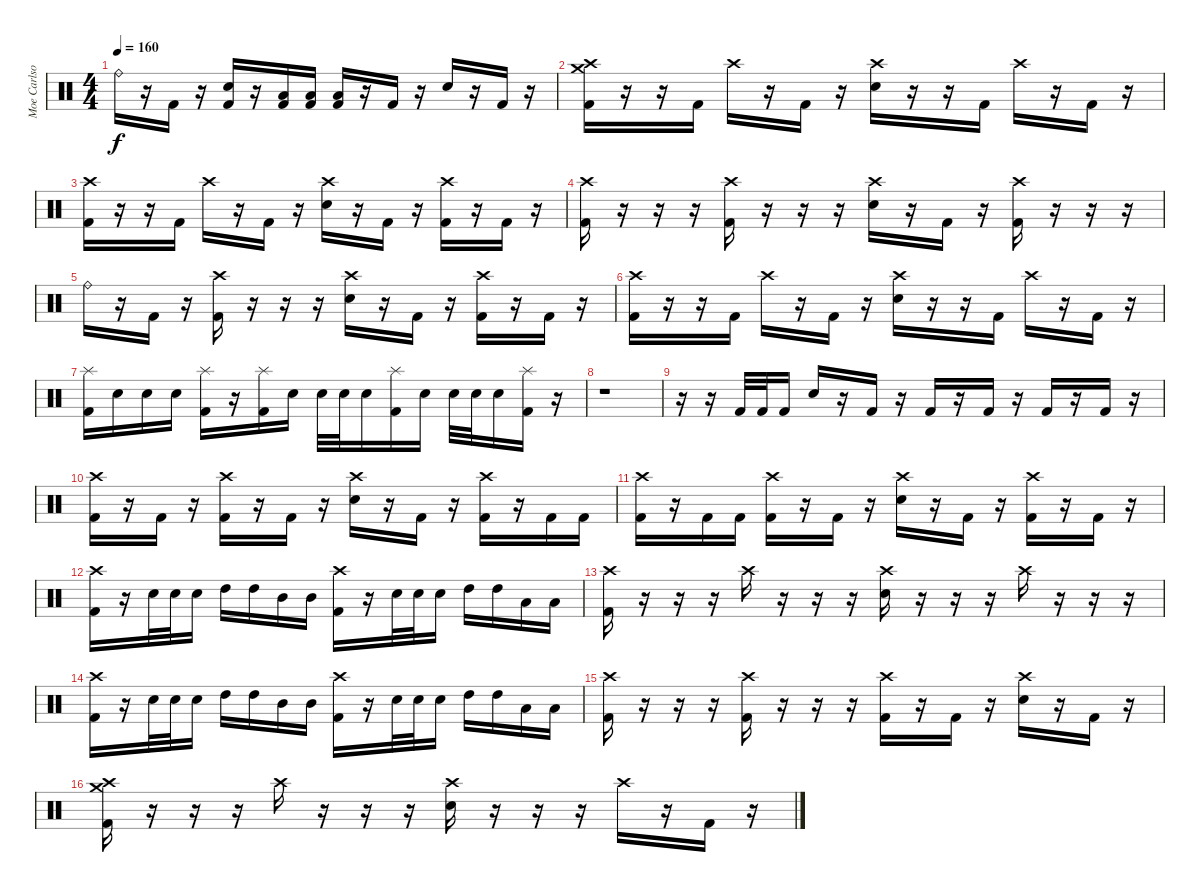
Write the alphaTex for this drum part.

\track ("Moe Carlson" "Moe Carlso") {instrument percussion}
\staff {score}
\articulation defaults
\ts (4 4)
\tempo 160
\clef neutral
\ks c "Ride (bell)".16{dy f}
r.16 "Kick (hit) 2".16 r.16 ("Electric Snare (hit)" "Kick (hit) 2").16 r.16 ("Low Tom (hit)" "Kick (hit) 2").16 ("Low Tom (hit)" "Kick (hit) 2").16 ("Low Tom (hit)" "Kick (hit) 2").16 r.16 "Kick (hit) 2".16 r.16 "Electric Snare (hit)".16 r.16 "Kick (hit) 2".16 r.16 |
("Crash high (hit)" "Crash medium (hit)" "Kick (hit) 2").16 r.16 r.16 "Kick (hit) 2".16 "Crash high (hit)".16 r.16 "Kick (hit) 2".16 r.16 ("Crash high (hit)" "Electric Snare (hit)").16 r.16 r.16 "Kick (hit) 2".16 "Crash high (hit)".16 r.16 "Kick (hit) 2".16 r.16 |
("Crash high (hit)" "Kick (hit) 2").16 r.16 r.16 "Kick (hit) 2".16 "Crash high (hit)".16 r.16 "Kick (hit) 2".16 r.16 ("Crash high (hit)" "Electric Snare (hit)").16 r.16 "Kick (hit) 2".16 r.16 ("Crash high (hit)" "Kick (hit) 2").16 r.16 "Kick (hit) 2".16 r.16 |
("Crash high (hit)" "Kick (hit) 2").16 r.16 r.16 r.16 ("Crash high (hit)" "Kick (hit) 2").16 r.16 r.16 r.16 ("Crash high (hit)" "Electric Snare (hit)").16 r.16 "Kick (hit) 2".16 r.16 ("Crash high (hit)" "Kick (hit) 2").16 r.16 r.16 r.16 |
"Ride (bell)".16 r.16 "Kick (hit) 2".16 r.16 ("Crash high (hit)" "Kick (hit) 2").16 r.16 r.16 r.16 ("Crash high (hit)" "Electric Snare (hit)").16 r.16 "Kick (hit) 2".16 r.16 ("Crash high (hit)" "Kick (hit) 2").16 r.16 "Kick (hit) 2".16 r.16 |
("Crash high (hit)" "Kick (hit) 2").16 r.16 r.16 "Kick (hit) 2".16 "Crash high (hit)".16 r.16 "Kick (hit) 2".16 r.16 ("Crash high (hit)" "Electric Snare (hit)").16 r.16 r.16 "Kick (hit) 2".16 "Crash high (hit)".16 r.16 "Kick (hit) 2".16 r.16 |
("Splash (hit)" "Kick (hit) 2").16 "Electric Snare (hit)".16 "Electric Snare (hit)".16 "Electric Snare (hit)".16 ("Splash (hit)" "Kick (hit) 2").16 r.16 ("Splash (hit)" "Kick (hit) 2").16 "Electric Snare (hit)".16 "Electric Snare (hit)".32 "Electric Snare (hit)".32 "Electric Snare (hit)".16 ("Splash (hit)" "Kick (hit) 2").16 "Electric Snare (hit)".16 "Electric Snare (hit)".32 "Electric Snare (hit)".32 "Electric Snare (hit)".16 ("Splash (hit)" "Kick (hit) 2").16 r.16 |
r.1 |
r.16 r.16 "Kick (hit) 2".32 "Kick (hit) 2".32 "Kick (hit) 2".16 "Electric Snare (hit)".16 r.16 "Kick (hit) 2".16 r.16 "Kick (hit) 2".16 r.16 "Kick (hit) 2".16 r.16 "Kick (hit) 2".16 r.16 "Kick (hit) 2".16 r.16 |
("Crash high (hit)" "Kick (hit) 2").16 r.16 "Kick (hit) 2".16 r.16 ("Crash high (hit)" "Kick (hit) 2").16 r.16 "Kick (hit) 2".16 r.16 ("Crash high (hit)" "Electric Snare (hit)").16 r.16 "Kick (hit) 2".16 r.16 ("Crash high (hit)" "Kick (hit) 2").16 r.16 "Kick (hit) 2".16 "Kick (hit) 2".16 |
("Crash high (hit)" "Kick (hit) 2").16 r.16 "Kick (hit) 2".16 "Kick (hit) 2".16 ("Crash high (hit)" "Kick (hit) 2").16 r.16 "Kick (hit) 2".16 r.16 ("Crash high (hit)" "Electric Snare (hit)").16 r.16 "Kick (hit) 2".16 r.16 ("Crash high (hit)" "Kick (hit) 2").16 r.16 "Kick (hit) 2".16 r.16 |
("Crash high (hit)" "Kick (hit) 2").16 r.16 "Electric Snare (hit)".32 "Electric Snare (hit)".32 "Electric Snare (hit)".16 "High Tom (hit)".16 "High Tom (hit)".16 "Mid Tom (hit)".16 "Mid Tom (hit)".16 ("Crash high (hit)" "Kick (hit) 2").16 r.16 "Electric Snare (hit)".32 "Electric Snare (hit)".32 "Electric Snare (hit)".16 "High Tom (hit)".16 "High Tom (hit)".16 "Low Tom (hit)".16 "Low Tom (hit)".16 |
("Crash high (hit)" "Kick (hit) 2").16 r.16 r.16 r.16 "Crash high (hit)".16 r.16 r.16 r.16 ("Crash high (hit)" "Electric Snare (hit)").16 r.16 r.16 r.16 "Crash high (hit)".16 r.16 r.16 r.16 |
("Crash high (hit)" "Kick (hit) 2").16 r.16 "Electric Snare (hit)".32 "Electric Snare (hit)".32 "Electric Snare (hit)".16 "High Tom (hit)".16 "High Tom (hit)".16 "Mid Tom (hit)".16 "Mid Tom (hit)".16 ("Crash high (hit)" "Kick (hit) 2").16 r.16 "Electric Snare (hit)".32 "Electric Snare (hit)".32 "Electric Snare (hit)".16 "High Tom (hit)".16 "High Tom (hit)".16 "Low Tom (hit)".16 "Low Tom (hit)".16 |
("Crash high (hit)" "Kick (hit) 2").16 r.16 r.16 r.16 ("Crash high (hit)" "Kick (hit) 2").16 r.16 r.16 r.16 ("Crash high (hit)" "Kick (hit) 2").16 r.16 "Kick (hit) 2".16 r.16 ("Crash high (hit)" "Electric Snare (hit)").16 r.16 "Kick (hit) 2".16 r.16 |
("Crash high (hit)" "Crash medium (hit)" "Kick (hit) 2").16 r.16 r.16 r.16 "Crash high (hit)".16 r.16 r.16 r.16 ("Crash high (hit)" "Electric Snare (hit)").16 r.16 r.16 r.16 "Crash high (hit)".16 r.16 "Kick (hit) 2".16 r.16
